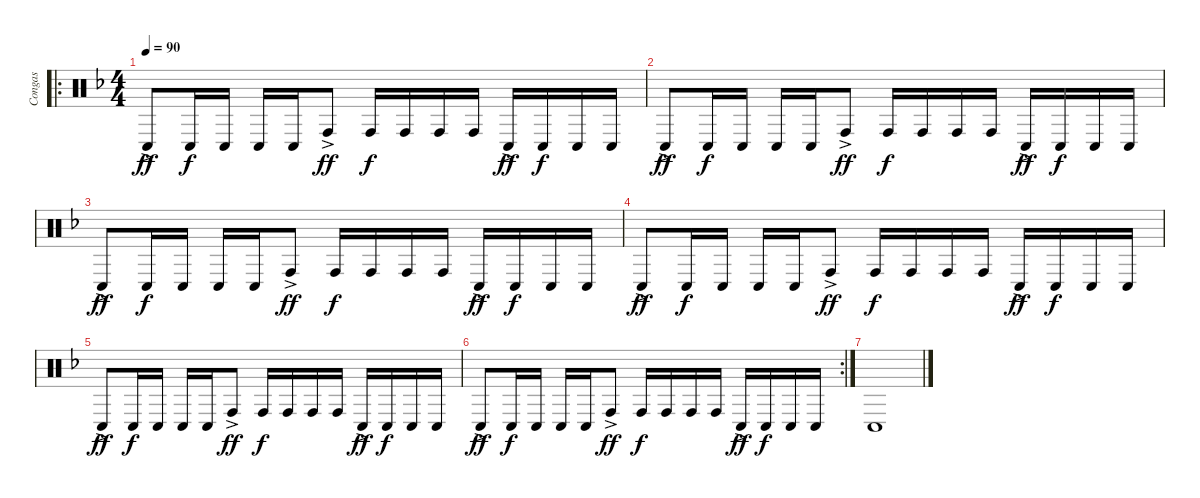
\track ("Congas" "Congas") {instrument percussion}
\staff {score}
\articulation defaults
\ro
\ts (4 4)
\tempo 90
\clef neutral
\ks dminor "Conga low (hit)"{ac}.8{dy ff} "Conga low (hit)".16{dy f} "Conga low (hit)".16 "Conga low (hit)".16 "Conga low (hit)".16 "Conga high (hit)"{ac}.8{dy ff} "Conga high (hit)".16{dy f} "Conga high (hit)".16 "Conga high (hit)".16 "Conga high (hit)".16 "Conga low (hit)"{ac}.16{dy ff} "Conga low (hit)".16{dy f} "Conga low (hit)".16 "Conga low (hit)".16
|
"Conga low (hit)"{ac}.8{dy ff} "Conga low (hit)".16{dy f} "Conga low (hit)".16 "Conga low (hit)".16 "Conga low (hit)".16 "Conga high (hit)"{ac}.8{dy ff} "Conga high (hit)".16{dy f} "Conga high (hit)".16 "Conga high (hit)".16 "Conga high (hit)".16 "Conga low (hit)"{ac}.16{dy ff} "Conga low (hit)".16{dy f} "Conga low (hit)".16 "Conga low (hit)".16 |
"Conga low (hit)"{ac}.8{dy ff} "Conga low (hit)".16{dy f} "Conga low (hit)".16 "Conga low (hit)".16 "Conga low (hit)".16 "Conga high (hit)"{ac}.8{dy ff} "Conga high (hit)".16{dy f} "Conga high (hit)".16 "Conga high (hit)".16 "Conga high (hit)".16 "Conga low (hit)"{ac}.16{dy ff} "Conga low (hit)".16{dy f} "Conga low (hit)".16 "Conga low (hit)".16 |
"Conga low (hit)"{ac}.8{dy ff} "Conga low (hit)".16{dy f} "Conga low (hit)".16 "Conga low (hit)".16 "Conga low (hit)".16 "Conga high (hit)"{ac}.8{dy ff} "Conga high (hit)".16{dy f} "Conga high (hit)".16 "Conga high (hit)".16 "Conga high (hit)".16 "Conga low (hit)"{ac}.16{dy ff} "Conga low (hit)".16{dy f} "Conga low (hit)".16 "Conga low (hit)".16 |
"Conga low (hit)"{ac}.8{dy ff} "Conga low (hit)".16{dy f} "Conga low (hit)".16 "Conga low (hit)".16 "Conga low (hit)".16 "Conga high (hit)"{ac}.8{dy ff} "Conga high (hit)".16{dy f} "Conga high (hit)".16 "Conga high (hit)".16 "Conga high (hit)".16 "Conga low (hit)"{ac}.16{dy ff} "Conga low (hit)".16{dy f} "Conga low (hit)".16 "Conga low (hit)".16 |
\rc 2 "Conga low (hit)"{ac}.8{dy ff} "Conga low (hit)".16{dy f} "Conga low (hit)".16 "Conga low (hit)".16 "Conga low (hit)".16 "Conga high (hit)"{ac}.8{dy ff} "Conga high (hit)".16{dy f} "Conga high (hit)".16 "Conga high (hit)".16 "Conga high (hit)".16 "Conga low (hit)"{ac}.16{dy ff} "Conga low (hit)".16{dy f} "Conga low (hit)".16 "Conga low (hit)".16
|
"Conga low (hit)".1
